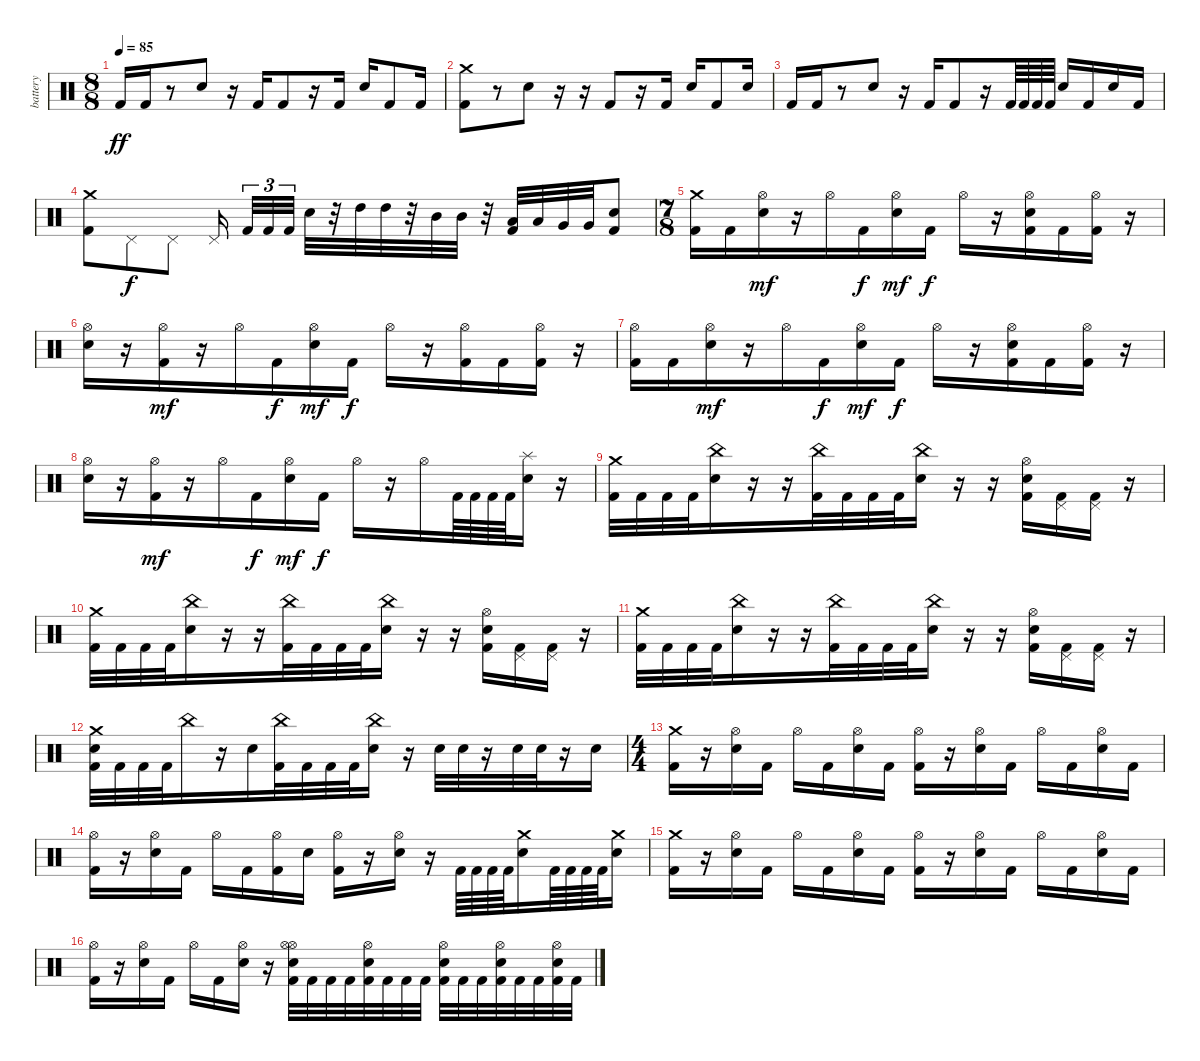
\track ("battery" "battery") {instrument percussion}
\staff {score}
\articulation defaults
\ts (8 8)
\tempo 85
\clef neutral
\ks c "Kick (hit) 2".16{dy ff} "Kick (hit) 2".16
r.8 "Electric Snare (hit)".8 r.16 "Kick (hit) 2".16 "Kick (hit) 2".8 r.16 "Kick (hit) 2".16 "Electric Snare (hit)".16 "Kick (hit) 2".8 "Kick (hit) 2".16 |
("Crash medium (hit)" "Kick (hit) 2").8 r.8 "Electric Snare (hit)".8 r.16 r.16 "Kick (hit) 2".8 r.16 "Kick (hit) 2".16 "Electric Snare (hit)".16 "Kick (hit) 2".8 "Electric Snare (hit)".16 |
"Kick (hit) 2".16 "Kick (hit) 2".16 r.8 "Electric Snare (hit)".8 r.16 "Kick (hit) 2".16 "Kick (hit) 2".8 r.16 "Kick (hit) 2".64 "Kick (hit) 2".64 "Kick (hit) 2".64 "Kick (hit) 2".64 "Electric Snare (hit)".16 "Kick (hit) 2".16 "Electric Snare (hit)".16 "Kick (hit) 2".16 |
("Crash medium (hit)" "Kick (hit) 2").8 "Pedal Hi-Hat (hit)".8{dy f} "Pedal Hi-Hat (hit)".8 "Pedal Hi-Hat (hit)".16{beam splitsecondary} "Kick (hit) 2".32{tu (3 2)} "Kick (hit) 2".32{tu (3 2)} "Kick (hit) 2".32{tu (3 2)} "Electric Snare (hit)".32 r.32 "High Tom (hit)".32 "High Tom (hit)".32 r.32 "Mid Tom (hit)".32 "Mid Tom (hit)".32 r.32 ("Low Tom (hit)" "Kick (hit) 2").32 "Low Tom (hit)".32 "Very Low Tom (hit)".32 "Very Low Tom (hit)".32 ("Electric Snare (hit)" "Kick (hit) 2").8 |
\ts (7 8)
("Crash medium (hit)" "Kick (hit) 2").16 "Kick (hit) 2".16 ("Hi-Hat (open)" "Electric Snare (hit)").16{dy mf} r.16 "Hi-Hat (open)".16 "Kick (hit) 2".16{dy f} ("Hi-Hat (open)" "Electric Snare (hit)").16{dy mf} "Kick (hit) 2".16{dy f} "Hi-Hat (open)".16 r.16 ("Hi-Hat (open)" "Electric Snare (hit)" "Kick (hit) 2").16 "Kick (hit) 2".16 ("Hi-Hat (open)" "Kick (hit) 2").16 r.16 |
("Hi-Hat (open)" "Electric Snare (hit)").16 r.16 ("Hi-Hat (open)" "Kick (hit) 2").16{dy mf} r.16 "Hi-Hat (open)".16 "Kick (hit) 2".16{dy f} ("Hi-Hat (open)" "Electric Snare (hit)").16{dy mf} "Kick (hit) 2".16{dy f} "Hi-Hat (open)".16 r.16 ("Hi-Hat (open)" "Kick (hit) 2").16 "Kick (hit) 2".16 ("Hi-Hat (open)" "Kick (hit) 2").16 r.16 |
("Hi-Hat (open)" "Kick (hit) 2").16 "Kick (hit) 2".16 ("Hi-Hat (open)" "Electric Snare (hit)").16{dy mf} r.16 "Hi-Hat (open)".16 "Kick (hit) 2".16{dy f} ("Hi-Hat (open)" "Electric Snare (hit)").16{dy mf} "Kick (hit) 2".16{dy f} "Hi-Hat (open)".16 r.16 ("Hi-Hat (open)" "Electric Snare (hit)" "Kick (hit) 2").16 "Kick (hit) 2".16 ("Hi-Hat (open)" "Kick (hit) 2").16 r.16 |
("Hi-Hat (open)" "Electric Snare (hit)").16 r.16 ("Hi-Hat (open)" "Kick (hit) 2").16{dy mf} r.16 "Hi-Hat (open)".16 "Kick (hit) 2".16{dy f} ("Hi-Hat (open)" "Electric Snare (hit)").16{dy mf} "Kick (hit) 2".16{dy f} "Hi-Hat (open)".16 r.16 "Hi-Hat (open)".16 "Kick (hit) 2".64 "Kick (hit) 2".64 "Kick (hit) 2".64 "Kick (hit) 2".64 ("Splash (hit)" "Electric Snare (hit)").16 r.16 |
("Crash medium (hit)" "Kick (hit) 2").32 "Kick (hit) 2".32 "Kick (hit) 2".32 "Kick (hit) 2".32 ("China (hit)" "Electric Snare (hit)").16 r.16 r.16 ("China (hit)" "Kick (hit) 2").32 "Kick (hit) 2".32 "Kick (hit) 2".32 "Kick (hit) 2".32 ("China (hit)" "Electric Snare (hit)").16 r.16 r.16 ("Hi-Hat (open)" "Electric Snare (hit)" "Kick (hit) 2").16 ("Pedal Hi-Hat (hit)" "Kick (hit) 2").16 ("Pedal Hi-Hat (hit)" "Kick (hit) 2").16 r.16 |
("Crash medium (hit)" "Kick (hit) 2").32 "Kick (hit) 2".32 "Kick (hit) 2".32 "Kick (hit) 2".32 ("China (hit)" "Electric Snare (hit)").16 r.16 r.16 ("China (hit)" "Kick (hit) 2").32 "Kick (hit) 2".32 "Kick (hit) 2".32 "Kick (hit) 2".32 ("China (hit)" "Electric Snare (hit)").16 r.16 r.16 ("Hi-Hat (open)" "Electric Snare (hit)" "Kick (hit) 2").16 ("Pedal Hi-Hat (hit)" "Kick (hit) 2").16 ("Pedal Hi-Hat (hit)" "Kick (hit) 2").16 r.16 |
("Crash medium (hit)" "Kick (hit) 2").32 "Kick (hit) 2".32 "Kick (hit) 2".32 "Kick (hit) 2".32 ("China (hit)" "Electric Snare (hit)").16 r.16 r.16 ("China (hit)" "Kick (hit) 2").32 "Kick (hit) 2".32 "Kick (hit) 2".32 "Kick (hit) 2".32 ("China (hit)" "Electric Snare (hit)").16 r.16 r.16 ("Hi-Hat (open)" "Electric Snare (hit)" "Kick (hit) 2").16 ("Pedal Hi-Hat (hit)" "Kick (hit) 2").16 ("Pedal Hi-Hat (hit)" "Kick (hit) 2").16 r.16 |
("Crash medium (hit)" "Electric Snare (hit)" "Kick (hit) 2").32 "Kick (hit) 2".32 "Kick (hit) 2".32 "Kick (hit) 2".32 "China (hit)".16 r.16 "Electric Snare (hit)".16 ("China (hit)" "Kick (hit) 2").32 "Kick (hit) 2".32 "Kick (hit) 2".32 "Kick (hit) 2".32 ("China (hit)" "Electric Snare (hit)").16 r.16 "Electric Snare (hit)".32 "Electric Snare (hit)".32 r.16 "Electric Snare (hit)".32 "Electric Snare (hit)".32 r.16 "Electric Snare (hit)".16 |
\ts (4 4)
("Crash medium (hit)" "Kick (hit) 2").16 r.16 ("Hi-Hat (open)" "Electric Snare (hit)").16 "Kick (hit) 2".16 "Hi-Hat (open)".16 "Kick (hit) 2".16 ("Hi-Hat (open)" "Electric Snare (hit)").16 "Kick (hit) 2".16 ("Hi-Hat (open)" "Kick (hit) 2").16 r.16 ("Hi-Hat (open)" "Electric Snare (hit)").16 "Kick (hit) 2".16 "Hi-Hat (open)".16 "Kick (hit) 2".16 ("Hi-Hat (open)" "Electric Snare (hit)").16 "Kick (hit) 2".16 |
("Hi-Hat (open)" "Kick (hit) 2").16 r.16 ("Hi-Hat (open)" "Electric Snare (hit)").16 "Kick (hit) 2".16 "Hi-Hat (open)".16 "Kick (hit) 2".16 ("Hi-Hat (open)" "Kick (hit) 2").16 "Electric Snare (hit)".16 ("Hi-Hat (open)" "Kick (hit) 2").16 r.16 ("Hi-Hat (open)" "Electric Snare (hit)").16 r.16 "Kick (hit) 2".64 "Kick (hit) 2".64 "Kick (hit) 2".64 "Kick (hit) 2".64 ("Crash medium (hit)" "Electric Snare (hit)").16 "Kick (hit) 2".64 "Kick (hit) 2".64 "Kick (hit) 2".64 "Kick (hit) 2".64 ("Crash medium (hit)" "Electric Snare (hit)").16 |
("Crash medium (hit)" "Kick (hit) 2").16 r.16 ("Hi-Hat (open)" "Electric Snare (hit)").16 "Kick (hit) 2".16 "Hi-Hat (open)".16 "Kick (hit) 2".16 ("Hi-Hat (open)" "Electric Snare (hit)").16 "Kick (hit) 2".16 ("Hi-Hat (open)" "Kick (hit) 2").16 r.16 ("Hi-Hat (open)" "Electric Snare (hit)").16 "Kick (hit) 2".16 "Hi-Hat (open)".16 "Kick (hit) 2".16 ("Hi-Hat (open)" "Electric Snare (hit)").16 "Kick (hit) 2".16 |
("Hi-Hat (open)" "Kick (hit) 2").16 r.16 ("Hi-Hat (open)" "Electric Snare (hit)").16 "Kick (hit) 2".16 "Hi-Hat (open)".16 "Kick (hit) 2".16 ("Hi-Hat (open)" "Electric Snare (hit)").16 r.16 ("Hi-Hat (open)" "Hi-Hat (open)" "Electric Snare (hit)" "Kick (hit) 2").32 "Kick (hit) 2".32 "Kick (hit) 2".32 "Kick (hit) 2".32 ("Hi-Hat (open)" "Electric Snare (hit)" "Kick (hit) 2").32 "Kick (hit) 2".32 "Kick (hit) 2".32 "Kick (hit) 2".32 ("Hi-Hat (open)" "Electric Snare (hit)" "Kick (hit) 2").32 "Kick (hit) 2".32 "Kick (hit) 2".32 ("Hi-Hat (open)" "Electric Snare (hit)" "Kick (hit) 2").32 "Kick (hit) 2".32 "Kick (hit) 2".32 ("Hi-Hat (open)" "Electric Snare (hit)" "Kick (hit) 2").32 "Kick (hit) 2".32
